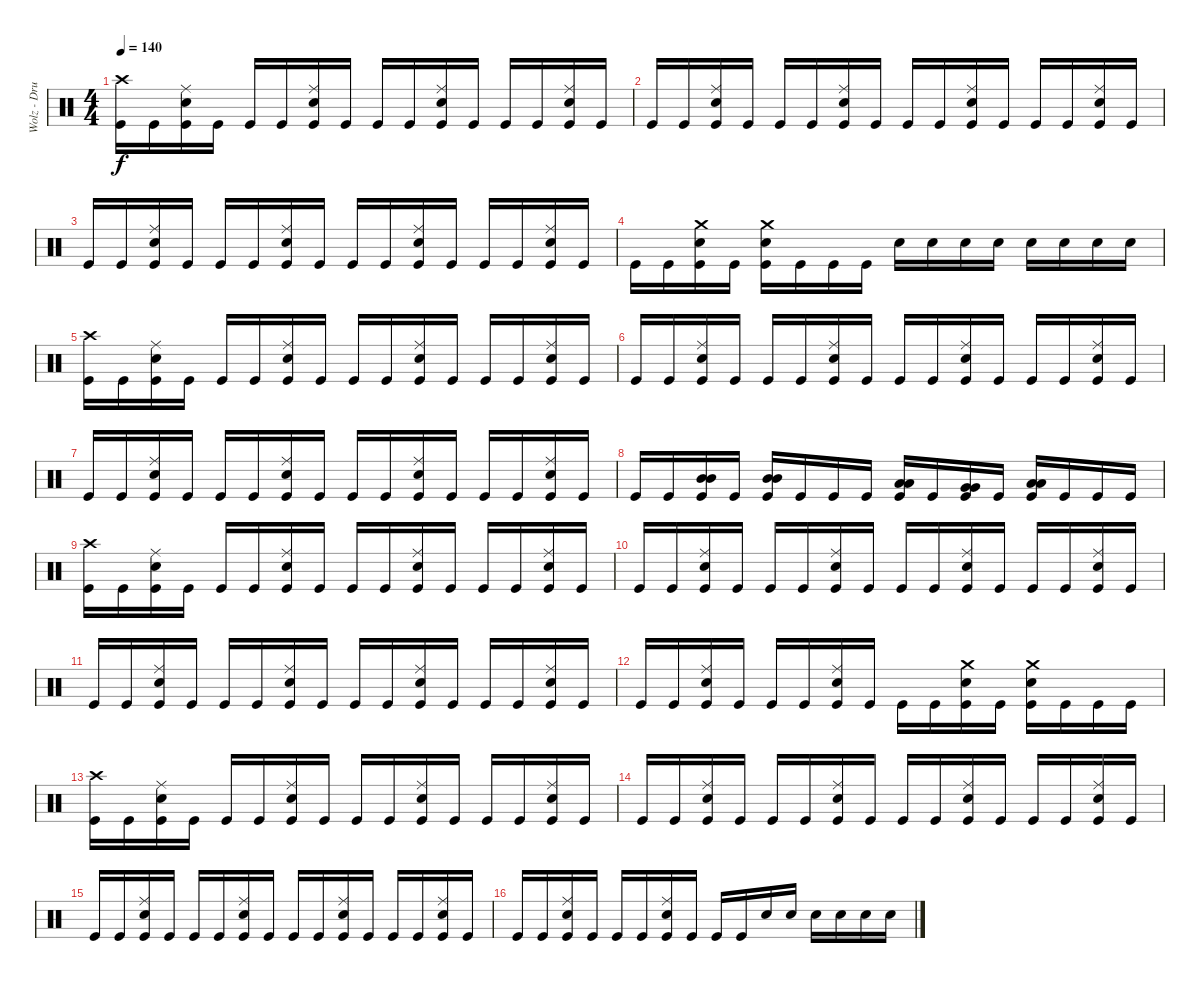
\track ("Wolz - Drums" "Wolz - Dru") {instrument percussion}
\staff {score}
\articulation defaults
\ts (4 4)
\tempo 140
\clef neutral
\ks c
("Crash high (hit)" "Kick (hit)").16{dy f} "Kick (hit)".16 ("Ride (middle)" "Electric Snare (hit)" "Kick (hit)").16 "Kick (hit)".16 "Kick (hit)".16 "Kick (hit)".16 ("Ride (middle)" "Electric Snare (hit)" "Kick (hit)").16 "Kick (hit)".16 "Kick (hit)".16 "Kick (hit)".16 ("Ride (middle)" "Electric Snare (hit)" "Kick (hit)").16 "Kick (hit)".16 "Kick (hit)".16 "Kick (hit)".16 ("Ride (middle)" "Electric Snare (hit)" "Kick (hit)").16 "Kick (hit)".16 |
"Kick (hit)".16 "Kick (hit)".16 ("Ride (middle)" "Electric Snare (hit)" "Kick (hit)").16 "Kick (hit)".16 "Kick (hit)".16 "Kick (hit)".16 ("Ride (middle)" "Electric Snare (hit)" "Kick (hit)").16 "Kick (hit)".16 "Kick (hit)".16 "Kick (hit)".16 ("Ride (middle)" "Electric Snare (hit)" "Kick (hit)").16 "Kick (hit)".16 "Kick (hit)".16 "Kick (hit)".16 ("Ride (middle)" "Electric Snare (hit)" "Kick (hit)").16 "Kick (hit)".16 |
"Kick (hit)".16 "Kick (hit)".16 ("Ride (middle)" "Electric Snare (hit)" "Kick (hit)").16 "Kick (hit)".16 "Kick (hit)".16 "Kick (hit)".16 ("Ride (middle)" "Electric Snare (hit)" "Kick (hit)").16 "Kick (hit)".16 "Kick (hit)".16 "Kick (hit)".16 ("Ride (middle)" "Electric Snare (hit)" "Kick (hit)").16 "Kick (hit)".16 "Kick (hit)".16 "Kick (hit)".16 ("Ride (middle)" "Electric Snare (hit)" "Kick (hit)").16 "Kick (hit)".16 |
"Kick (hit)".16 "Kick (hit)".16 ("Crash medium (hit)" "Electric Snare (hit)" "Kick (hit)").16 "Kick (hit)".16 ("Crash medium (hit)" "Electric Snare (hit)" "Kick (hit)").16 "Kick (hit)".16 "Kick (hit)".16 "Kick (hit)".16 "Electric Snare (hit)".16 "Electric Snare (hit)".16 "Electric Snare (hit)".16 "Electric Snare (hit)".16 "Electric Snare (hit)".16 "Electric Snare (hit)".16 "Electric Snare (hit)".16 "Electric Snare (hit)".16 |
("Crash high (hit)" "Kick (hit)").16 "Kick (hit)".16 ("Ride (middle)" "Electric Snare (hit)" "Kick (hit)").16 "Kick (hit)".16 "Kick (hit)".16 "Kick (hit)".16 ("Ride (middle)" "Electric Snare (hit)" "Kick (hit)").16 "Kick (hit)".16 "Kick (hit)".16 "Kick (hit)".16 ("Ride (middle)" "Electric Snare (hit)" "Kick (hit)").16 "Kick (hit)".16 "Kick (hit)".16 "Kick (hit)".16 ("Ride (middle)" "Electric Snare (hit)" "Kick (hit)").16 "Kick (hit)".16 |
"Kick (hit)".16 "Kick (hit)".16 ("Ride (middle)" "Electric Snare (hit)" "Kick (hit)").16 "Kick (hit)".16 "Kick (hit)".16 "Kick (hit)".16 ("Ride (middle)" "Electric Snare (hit)" "Kick (hit)").16 "Kick (hit)".16 "Kick (hit)".16 "Kick (hit)".16 ("Ride (middle)" "Electric Snare (hit)" "Kick (hit)").16 "Kick (hit)".16 "Kick (hit)".16 "Kick (hit)".16 ("Ride (middle)" "Electric Snare (hit)" "Kick (hit)").16 "Kick (hit)".16 |
"Kick (hit)".16 "Kick (hit)".16 ("Ride (middle)" "Electric Snare (hit)" "Kick (hit)").16 "Kick (hit)".16 "Kick (hit)".16 "Kick (hit)".16 ("Ride (middle)" "Electric Snare (hit)" "Kick (hit)").16 "Kick (hit)".16 "Kick (hit)".16 "Kick (hit)".16 ("Ride (middle)" "Electric Snare (hit)" "Kick (hit)").16 "Kick (hit)".16 "Kick (hit)".16 "Kick (hit)".16 ("Ride (middle)" "Electric Snare (hit)" "Kick (hit)").16 "Kick (hit)".16 |
"Kick (hit)".16 "Kick (hit)".16 ("Mid Tom (hit)" "Mid Tom (hit)" "Kick (hit)").16{bu 60} "Kick (hit)".16 ("Mid Tom (hit)" "Mid Tom (hit)" "Kick (hit)").16{bu 60} "Kick (hit)".16 "Kick (hit)".16 "Kick (hit)".16 ("Low Tom (hit)" "Low Tom (hit)" "Kick (hit)").16{bu 60} "Kick (hit)".16 ("Very Low Tom (hit)" "Very Low Tom (hit)" "Kick (hit)").16{bu 60} "Kick (hit)".16 ("Low Floor Tom (hit)" "Low Floor Tom (hit)" "Kick (hit)").16{bu 60} "Kick (hit)".16 "Kick (hit)".16 "Kick (hit)".16 |
("Crash high (hit)" "Kick (hit)").16 "Kick (hit)".16 ("Ride (middle)" "Electric Snare (hit)" "Kick (hit)").16 "Kick (hit)".16 "Kick (hit)".16 "Kick (hit)".16 ("Ride (middle)" "Electric Snare (hit)" "Kick (hit)").16 "Kick (hit)".16 "Kick (hit)".16 "Kick (hit)".16 ("Ride (middle)" "Electric Snare (hit)" "Kick (hit)").16 "Kick (hit)".16 "Kick (hit)".16 "Kick (hit)".16 ("Ride (middle)" "Electric Snare (hit)" "Kick (hit)").16 "Kick (hit)".16 |
"Kick (hit)".16 "Kick (hit)".16 ("Ride (middle)" "Electric Snare (hit)" "Kick (hit)").16 "Kick (hit)".16 "Kick (hit)".16 "Kick (hit)".16 ("Ride (middle)" "Electric Snare (hit)" "Kick (hit)").16 "Kick (hit)".16 "Kick (hit)".16 "Kick (hit)".16 ("Ride (middle)" "Electric Snare (hit)" "Kick (hit)").16 "Kick (hit)".16 "Kick (hit)".16 "Kick (hit)".16 ("Ride (middle)" "Electric Snare (hit)" "Kick (hit)").16 "Kick (hit)".16 |
"Kick (hit)".16 "Kick (hit)".16 ("Ride (middle)" "Electric Snare (hit)" "Kick (hit)").16 "Kick (hit)".16 "Kick (hit)".16 "Kick (hit)".16 ("Ride (middle)" "Electric Snare (hit)" "Kick (hit)").16 "Kick (hit)".16 "Kick (hit)".16 "Kick (hit)".16 ("Ride (middle)" "Electric Snare (hit)" "Kick (hit)").16 "Kick (hit)".16 "Kick (hit)".16 "Kick (hit)".16 ("Ride (middle)" "Electric Snare (hit)" "Kick (hit)").16 "Kick (hit)".16 |
"Kick (hit)".16 "Kick (hit)".16 ("Ride (middle)" "Electric Snare (hit)" "Kick (hit)").16 "Kick (hit)".16 "Kick (hit)".16 "Kick (hit)".16 ("Ride (middle)" "Electric Snare (hit)" "Kick (hit)").16 "Kick (hit)".16 "Kick (hit)".16 "Kick (hit)".16 ("Crash medium (hit)" "Electric Snare (hit)" "Kick (hit)").16 "Kick (hit)".16 ("Crash medium (hit)" "Electric Snare (hit)" "Kick (hit)").16 "Kick (hit)".16 "Kick (hit)".16 "Kick (hit)".16 |
("Crash high (hit)" "Kick (hit)").16 "Kick (hit)".16 ("Ride (middle)" "Electric Snare (hit)" "Kick (hit)").16 "Kick (hit)".16 "Kick (hit)".16 "Kick (hit)".16 ("Ride (middle)" "Electric Snare (hit)" "Kick (hit)").16 "Kick (hit)".16 "Kick (hit)".16 "Kick (hit)".16 ("Ride (middle)" "Electric Snare (hit)" "Kick (hit)").16 "Kick (hit)".16 "Kick (hit)".16 "Kick (hit)".16 ("Ride (middle)" "Electric Snare (hit)" "Kick (hit)").16 "Kick (hit)".16 |
"Kick (hit)".16 "Kick (hit)".16 ("Ride (middle)" "Electric Snare (hit)" "Kick (hit)").16 "Kick (hit)".16 "Kick (hit)".16 "Kick (hit)".16 ("Ride (middle)" "Electric Snare (hit)" "Kick (hit)").16 "Kick (hit)".16 "Kick (hit)".16 "Kick (hit)".16 ("Ride (middle)" "Electric Snare (hit)" "Kick (hit)").16 "Kick (hit)".16 "Kick (hit)".16 "Kick (hit)".16 ("Ride (middle)" "Electric Snare (hit)" "Kick (hit)").16 "Kick (hit)".16 |
"Kick (hit)".16 "Kick (hit)".16 ("Ride (middle)" "Electric Snare (hit)" "Kick (hit)").16 "Kick (hit)".16 "Kick (hit)".16 "Kick (hit)".16 ("Ride (middle)" "Electric Snare (hit)" "Kick (hit)").16 "Kick (hit)".16 "Kick (hit)".16 "Kick (hit)".16 ("Ride (middle)" "Electric Snare (hit)" "Kick (hit)").16 "Kick (hit)".16 "Kick (hit)".16 "Kick (hit)".16 ("Ride (middle)" "Electric Snare (hit)" "Kick (hit)").16 "Kick (hit)".16 |
"Kick (hit)".16 "Kick (hit)".16 ("Ride (middle)" "Electric Snare (hit)" "Kick (hit)").16 "Kick (hit)".16 "Kick (hit)".16 "Kick (hit)".16 ("Ride (middle)" "Electric Snare (hit)" "Kick (hit)").16 "Kick (hit)".16 "Kick (hit)".16 "Kick (hit)".16 "Electric Snare (hit)".16 "Electric Snare (hit)".16 "Electric Snare (hit)".16 "Electric Snare (hit)".16 "Electric Snare (hit)".16 "Electric Snare (hit)".16
